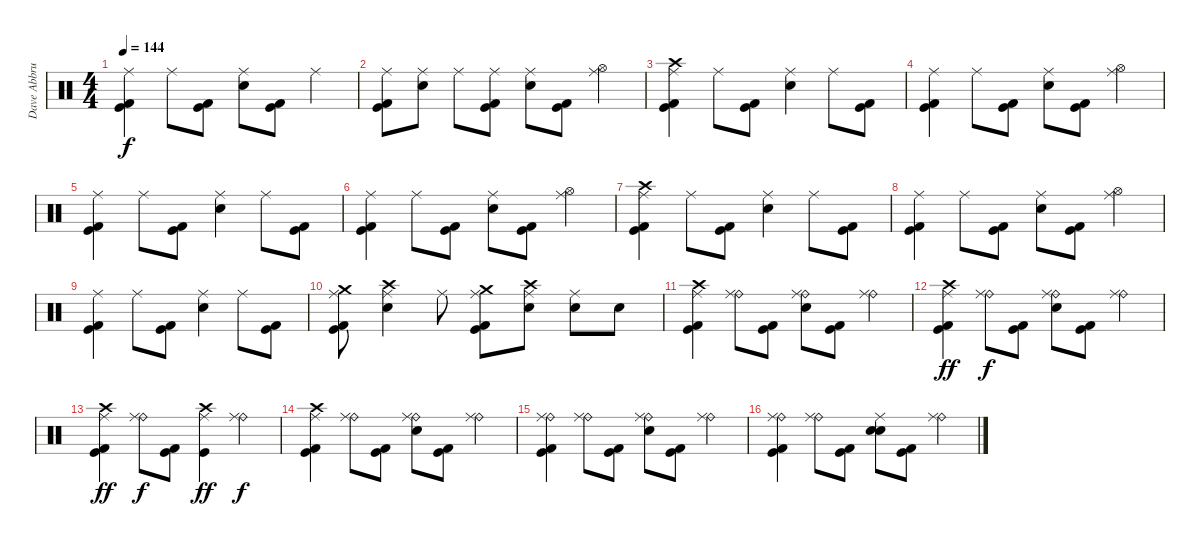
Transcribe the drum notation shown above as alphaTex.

\track ("Dave Abbruzzese" "Dave Abbru") {instrument percussion}
\staff {score}
\articulation defaults
\ts (4 4)
\tempo 144
\clef neutral
\ks c
("Ride (middle)" "Kick (hit)" "Kick (hit) 2").4{dy f} "Ride (middle)".8 ("Kick (hit)" "Kick (hit) 2").8 ("Electric Snare (hit)" "Ride (middle)").8 ("Kick (hit)" "Kick (hit) 2").8 "Ride (middle)".4 |
("Ride (middle)" "Kick (hit)" "Kick (hit) 2").8 ("Electric Snare (hit)" "Ride (middle)").8 "Ride (middle)".8 ("Ride (middle)" "Kick (hit)" "Kick (hit) 2").8 ("Electric Snare (hit)" "Ride (middle)").8 ("Kick (hit)" "Kick (hit) 2").8 ("Ride (middle)" "Hi-Hat (open)").4 |
("Crash high (hit)" "Ride (middle)" "Kick (hit)" "Kick (hit) 2").4 "Ride (middle)".8 ("Kick (hit)" "Kick (hit) 2").8 ("Electric Snare (hit)" "Ride (middle)").4 "Ride (middle)".8 ("Kick (hit)" "Kick (hit) 2").8 |
("Ride (middle)" "Kick (hit)" "Kick (hit) 2").4 "Ride (middle)".8 ("Kick (hit)" "Kick (hit) 2").8 ("Electric Snare (hit)" "Ride (middle)").8 ("Kick (hit)" "Kick (hit) 2").8 ("Ride (middle)" "Hi-Hat (open)").4 |
("Ride (middle)" "Kick (hit)" "Kick (hit) 2").4 "Ride (middle)".8 ("Kick (hit)" "Kick (hit) 2").8 ("Electric Snare (hit)" "Ride (middle)").4 "Ride (middle)".8 ("Kick (hit)" "Kick (hit) 2").8 |
("Ride (middle)" "Kick (hit)" "Kick (hit) 2").4 "Ride (middle)".8 ("Kick (hit)" "Kick (hit) 2").8 ("Electric Snare (hit)" "Ride (middle)").8 ("Kick (hit)" "Kick (hit) 2").8 ("Ride (middle)" "Hi-Hat (open)").4 |
("Crash high (hit)" "Ride (middle)" "Kick (hit)" "Kick (hit) 2").4 "Ride (middle)".8 ("Kick (hit)" "Kick (hit) 2").8 ("Electric Snare (hit)" "Ride (middle)").4 "Ride (middle)".8 ("Kick (hit)" "Kick (hit) 2").8 |
("Ride (middle)" "Kick (hit)" "Kick (hit) 2").4 "Ride (middle)".8 ("Kick (hit)" "Kick (hit) 2").8 ("Electric Snare (hit)" "Ride (middle)").8 ("Kick (hit)" "Kick (hit) 2").8 ("Ride (middle)" "Hi-Hat (open)").4 |
("Ride (middle)" "Kick (hit)" "Kick (hit) 2").4 "Ride (middle)".8 ("Kick (hit)" "Kick (hit) 2").8 ("Electric Snare (hit)" "Ride (middle)").4 "Ride (middle)".8 ("Kick (hit)" "Kick (hit) 2").8 |
("Crash medium (hit)" "Ride (middle)" "Kick (hit)" "Kick (hit) 2").8 ("Crash high (hit)" "Ride (middle)" "Electric Snare (hit)").4 "Ride (middle)".8 ("Crash medium (hit)" "Ride (middle)" "Kick (hit)" "Kick (hit) 2").8 ("Crash high (hit)" "Ride (middle)" "Electric Snare (hit)").8 ("Ride (middle)" "Electric Snare (hit)").8 "Electric Snare (hit)".8 |
("Crash high (hit)" "Ride (middle)" "Kick (hit)" "Kick (hit) 2").4 ("Ride (bell)" "Ride (middle)").8 ("Kick (hit)" "Kick (hit) 2").8 ("Electric Snare (hit)" "Ride (bell)" "Ride (middle)").8 ("Kick (hit)" "Kick (hit) 2").8 ("Ride (bell)" "Ride (middle)").4 |
("Crash high (hit)" "Ride (middle)" "Kick (hit)" "Kick (hit) 2").4{dy ff} ("Ride (bell)" "Ride (middle)").8{dy f} ("Kick (hit)" "Kick (hit) 2").8 ("Electric Snare (hit)" "Ride (bell)" "Ride (middle)").8 ("Kick (hit)" "Kick (hit) 2").8 ("Ride (bell)" "Ride (middle)").4 |
("Crash high (hit)" "Ride (middle)" "Kick (hit)" "Kick (hit) 2").4{dy ff} ("Ride (bell)" "Ride (middle)").8{dy f} ("Kick (hit)" "Kick (hit) 2").8 ("Crash high (hit)" "Ride (middle)" "Kick (hit)").4{dy ff} ("Ride (bell)" "Ride (middle)").4{dy f} |
("Crash high (hit)" "Ride (middle)" "Kick (hit)" "Kick (hit) 2").4 ("Ride (bell)" "Ride (middle)").8 ("Kick (hit)" "Kick (hit) 2").8 ("Electric Snare (hit)" "Ride (bell)" "Ride (middle)").8 ("Kick (hit)" "Kick (hit) 2").8 ("Ride (bell)" "Ride (middle)").4 |
("Ride (bell)" "Ride (middle)" "Kick (hit)" "Kick (hit) 2").4 ("Ride (bell)" "Ride (middle)").8 ("Kick (hit)" "Kick (hit) 2").8 ("Electric Snare (hit)" "Ride (bell)" "Ride (middle)").8 ("Kick (hit)" "Kick (hit) 2").8 ("Ride (bell)" "Ride (middle)").4 |
("Ride (bell)" "Ride (middle)" "Kick (hit)" "Kick (hit) 2").4 ("Ride (bell)" "Ride (middle)").8 ("Kick (hit)" "Kick (hit) 2").8 ("Electric Snare (hit)" "Electric Snare (hit)" "Ride (middle)").8{bd 120} ("Kick (hit)" "Kick (hit) 2").8 ("Ride (bell)" "Ride (middle)").4
